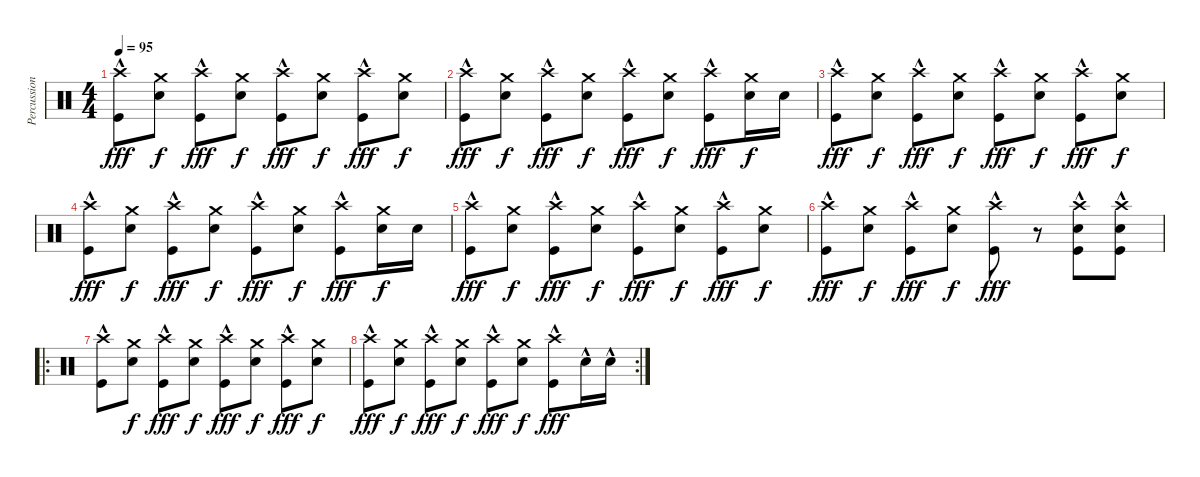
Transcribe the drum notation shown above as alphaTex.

\track ("Percussion" "Percussion") {instrument percussion}
\staff {score}
\articulation defaults
\ts (4 4)
\tempo 95
\clef neutral
\ks c
("Crash high (hit)" "Kick (hit)"{hac}).8{dy fff} ("Crash medium (hit)" "Electric Snare (hit)").8{dy f} ("Crash high (hit)" "Kick (hit)"{hac}).8{dy fff} ("Crash medium (hit)" "Electric Snare (hit)").8{dy f} ("Crash high (hit)" "Kick (hit)"{hac}).8{dy fff} ("Crash medium (hit)" "Electric Snare (hit)").8{dy f} ("Crash high (hit)" "Kick (hit)"{hac}).8{dy fff} ("Crash medium (hit)" "Electric Snare (hit)").8{dy f} |
("Crash high (hit)" "Kick (hit)"{hac}).8{dy fff} ("Crash medium (hit)" "Electric Snare (hit)").8{dy f} ("Crash high (hit)" "Kick (hit)"{hac}).8{dy fff} ("Crash medium (hit)" "Electric Snare (hit)").8{dy f} ("Crash high (hit)" "Kick (hit)"{hac}).8{dy fff} ("Crash medium (hit)" "Electric Snare (hit)").8{dy f} ("Crash high (hit)" "Kick (hit)"{hac}).8{dy fff} ("Crash medium (hit)" "Electric Snare (hit)").16{dy f} "Electric Snare (hit)".16 |
("Crash high (hit)" "Kick (hit)"{hac}).8{dy fff} ("Crash medium (hit)" "Electric Snare (hit)").8{dy f} ("Crash high (hit)" "Kick (hit)"{hac}).8{dy fff} ("Crash medium (hit)" "Electric Snare (hit)").8{dy f} ("Crash high (hit)" "Kick (hit)"{hac}).8{dy fff} ("Crash medium (hit)" "Electric Snare (hit)").8{dy f} ("Crash high (hit)" "Kick (hit)"{hac}).8{dy fff} ("Crash medium (hit)" "Electric Snare (hit)").8{dy f} |
("Crash high (hit)" "Kick (hit)"{hac}).8{dy fff} ("Crash medium (hit)" "Electric Snare (hit)").8{dy f} ("Crash high (hit)" "Kick (hit)"{hac}).8{dy fff} ("Crash medium (hit)" "Electric Snare (hit)").8{dy f} ("Crash high (hit)" "Kick (hit)"{hac}).8{dy fff} ("Crash medium (hit)" "Electric Snare (hit)").8{dy f} ("Crash high (hit)" "Kick (hit)"{hac}).8{dy fff} ("Crash medium (hit)" "Electric Snare (hit)").16{dy f} "Electric Snare (hit)".16 |
("Crash high (hit)" "Kick (hit)"{hac}).8{dy fff} ("Crash medium (hit)" "Electric Snare (hit)").8{dy f} ("Crash high (hit)" "Kick (hit)"{hac}).8{dy fff} ("Crash medium (hit)" "Electric Snare (hit)").8{dy f} ("Crash high (hit)" "Kick (hit)"{hac}).8{dy fff} ("Crash medium (hit)" "Electric Snare (hit)").8{dy f} ("Crash high (hit)" "Kick (hit)"{hac}).8{dy fff} ("Crash medium (hit)" "Electric Snare (hit)").8{dy f} |
("Crash high (hit)" "Kick (hit)"{hac}).8{dy fff} ("Crash medium (hit)" "Electric Snare (hit)").8{dy f} ("Crash high (hit)" "Kick (hit)"{hac}).8{dy fff} ("Crash medium (hit)" "Electric Snare (hit)").8{dy f} ("Crash high (hit)" "Kick (hit)"{hac}).8{dy fff} r.8 ("Kick (hit)"{hac} "Crash high (hit)" "Electric Snare (hit)"{hac}).8 ("Kick (hit)"{hac} "Crash high (hit)" "Electric Snare (hit)"{hac}).8 |
\ro
("Crash high (hit)" "Kick (hit)"{hac}).8 ("Crash medium (hit)" "Electric Snare (hit)").8{dy f} ("Crash high (hit)" "Kick (hit)"{hac}).8{dy fff} ("Crash medium (hit)" "Electric Snare (hit)").8{dy f} ("Crash high (hit)" "Kick (hit)"{hac}).8{dy fff} ("Crash medium (hit)" "Electric Snare (hit)").8{dy f} ("Crash high (hit)" "Kick (hit)"{hac}).8{dy fff} ("Crash medium (hit)" "Electric Snare (hit)").8{dy f} |
\rc 2
("Crash high (hit)" "Kick (hit)"{hac}).8{dy fff} ("Crash medium (hit)" "Electric Snare (hit)").8{dy f} ("Crash high (hit)" "Kick (hit)"{hac}).8{dy fff} ("Crash medium (hit)" "Electric Snare (hit)").8{dy f} ("Crash high (hit)" "Kick (hit)"{hac}).8{dy fff} ("Crash medium (hit)" "Electric Snare (hit)").8{dy f} ("Crash high (hit)" "Kick (hit)"{hac}).8{dy fff} "Electric Snare (hit)"{hac}.16 "Electric Snare (hit)"{hac}.16
